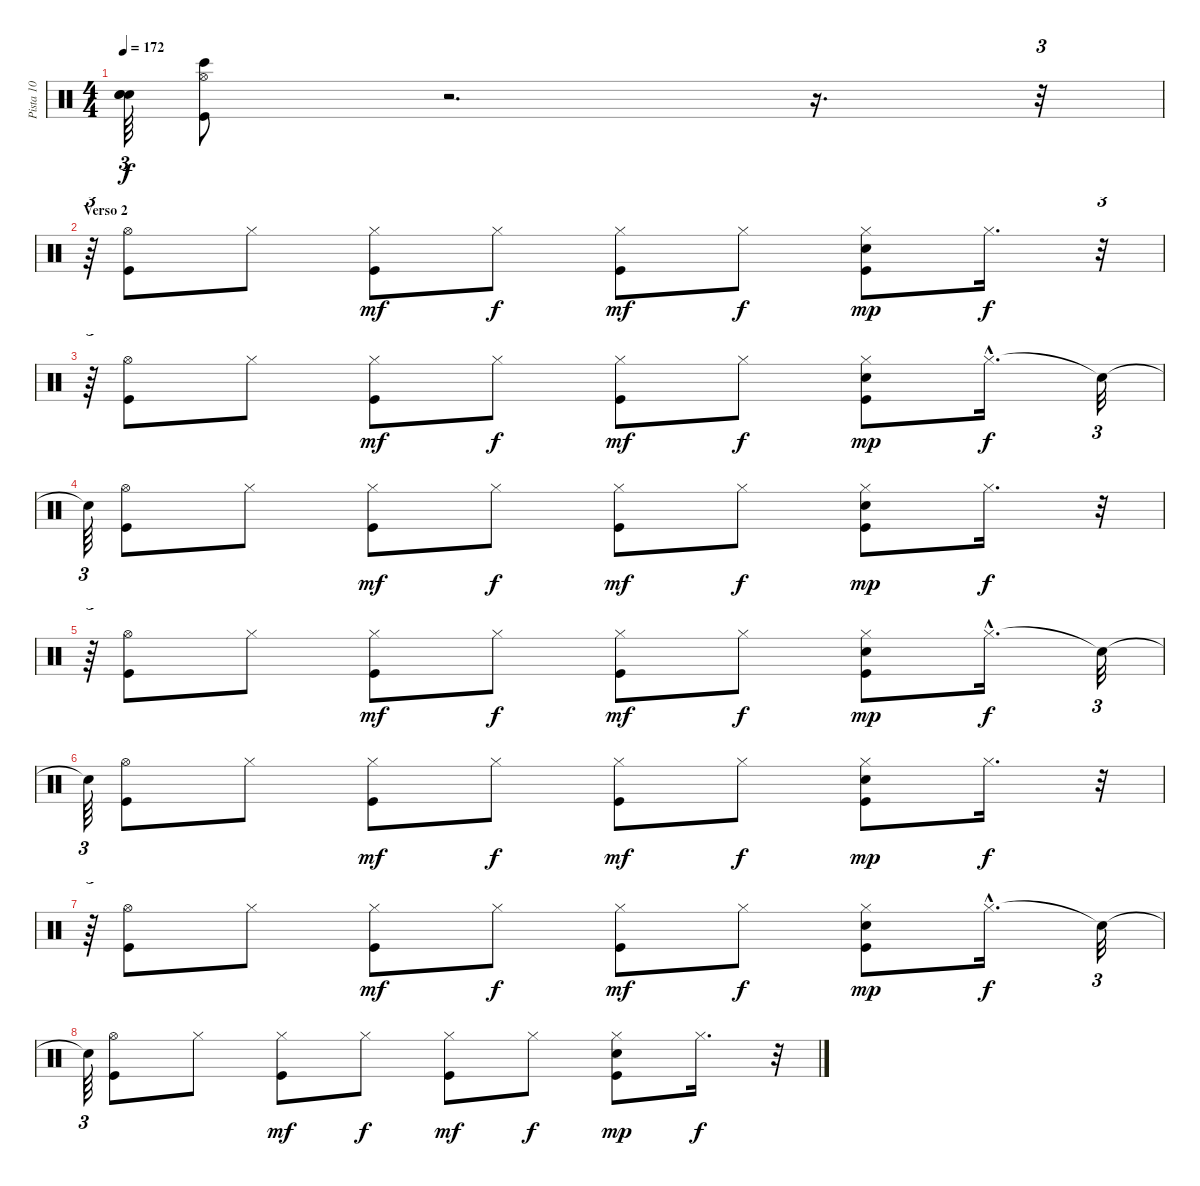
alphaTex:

\track ("Pista 10" "Pista 10") {instrument percussion}
\staff {score}
\articulation defaults
\ts (4 4)
\tempo 172
\clef neutral
\ks c
("Snare (hit)"{t} "Snare (hit)"{t} "Snare (hit)"{t}).64{tu (3 2) dy f} ("Bongo High (hit)" "Kick (hit)" "Hi-Hat (open)").8 r.2{d} r.16{d} r.32{tu (3 2)} |
\section ("" "Verso 2")
r.64{tu (3 2)} ("Kick (hit)" "Hi-Hat (open)").8 "Hi-Hat (closed)".8 ("Hi-Hat (closed)" "Kick (hit)").8{dy mf} "Hi-Hat (closed)".8{dy f} ("Hi-Hat (closed)" "Kick (hit)").8{dy mf} "Hi-Hat (closed)".8{dy f} ("Hi-Hat (closed)" "Kick (hit)" "Snare (hit) 2").8{dy mp} "Hi-Hat (closed)".16{d dy f} r.32{tu (3 2)} |
r.64{tu (3 2)} ("Hi-Hat (open)" "Kick (hit)").8 "Hi-Hat (closed)".8 ("Kick (hit)" "Hi-Hat (closed)").8{dy mf} "Hi-Hat (closed)".8{dy f} ("Kick (hit)" "Hi-Hat (closed)").8{dy mf} "Hi-Hat (closed)".8{dy f} ("Snare (hit) 2" "Hi-Hat (closed)" "Kick (hit)").8{dy mp} "Hi-Hat (closed)"{hac}.16{d dy f} "Snare (hit)"{t}.32{tu (3 2)} |
"Snare (hit)"{t}.64{tu (3 2)} ("Kick (hit)" "Hi-Hat (open)").8 "Hi-Hat (closed)".8 ("Hi-Hat (closed)" "Kick (hit)").8{dy mf} "Hi-Hat (closed)".8{dy f} ("Hi-Hat (closed)" "Kick (hit)").8{dy mf} "Hi-Hat (closed)".8{dy f} ("Hi-Hat (closed)" "Kick (hit)" "Snare (hit) 2").8{dy mp} "Hi-Hat (closed)".16{d dy f} r.32{tu (3 2)} |
r.64{tu (3 2)} ("Hi-Hat (open)" "Kick (hit)").8 "Hi-Hat (closed)".8 ("Kick (hit)" "Hi-Hat (closed)").8{dy mf} "Hi-Hat (closed)".8{dy f} ("Kick (hit)" "Hi-Hat (closed)").8{dy mf} "Hi-Hat (closed)".8{dy f} ("Snare (hit) 2" "Hi-Hat (closed)" "Kick (hit)").8{dy mp} "Hi-Hat (closed)"{hac}.16{d dy f} "Snare (hit)"{t}.32{tu (3 2)} |
"Snare (hit)"{t}.64{tu (3 2)} ("Kick (hit)" "Hi-Hat (open)").8 "Hi-Hat (closed)".8 ("Hi-Hat (closed)" "Kick (hit)").8{dy mf} "Hi-Hat (closed)".8{dy f} ("Hi-Hat (closed)" "Kick (hit)").8{dy mf} "Hi-Hat (closed)".8{dy f} ("Hi-Hat (closed)" "Kick (hit)" "Snare (hit) 2").8{dy mp} "Hi-Hat (closed)".16{d dy f} r.32{tu (3 2)} |
r.64{tu (3 2)} ("Hi-Hat (open)" "Kick (hit)").8 "Hi-Hat (closed)".8 ("Kick (hit)" "Hi-Hat (closed)").8{dy mf} "Hi-Hat (closed)".8{dy f} ("Kick (hit)" "Hi-Hat (closed)").8{dy mf} "Hi-Hat (closed)".8{dy f} ("Snare (hit) 2" "Hi-Hat (closed)" "Kick (hit)").8{dy mp} "Hi-Hat (closed)"{hac}.16{d dy f} "Snare (hit)"{t}.32{tu (3 2)} |
"Snare (hit)"{t}.64{tu (3 2)} ("Kick (hit)" "Hi-Hat (open)").8 "Hi-Hat (closed)".8 ("Hi-Hat (closed)" "Kick (hit)").8{dy mf} "Hi-Hat (closed)".8{dy f} ("Hi-Hat (closed)" "Kick (hit)").8{dy mf} "Hi-Hat (closed)".8{dy f} ("Hi-Hat (closed)" "Kick (hit)" "Snare (hit) 2").8{dy mp} "Hi-Hat (closed)".16{d dy f} r.32{tu (3 2)}
